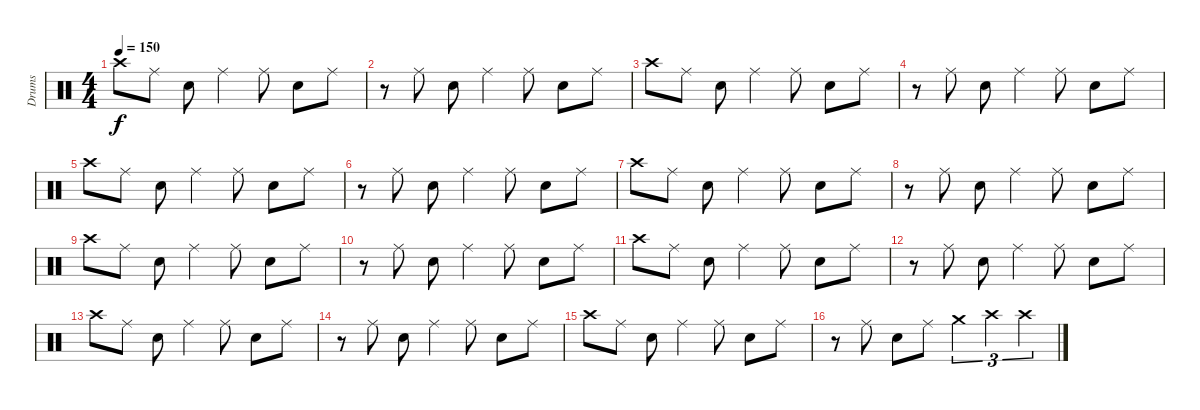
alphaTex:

\track ("Drums" "Drums") {instrument percussion}
\staff {score}
\articulation defaults
\ts (4 4)
\tempo 150
\clef neutral
\ks c "Crash high (hit)".8{dy f} "Ride (middle)".8 "Electric Snare (hit)".8 "Ride (middle)".4 "Ride (middle)".8 "Electric Snare (hit)".8 "Ride (middle)".8
|
r.8 "Ride (middle)".8 "Electric Snare (hit)".8 "Ride (middle)".4 "Ride (middle)".8 "Electric Snare (hit)".8 "Ride (middle)".8 |
"Crash high (hit)".8 "Ride (middle)".8 "Electric Snare (hit)".8 "Ride (middle)".4 "Ride (middle)".8 "Electric Snare (hit)".8 "Ride (middle)".8 |
r.8 "Ride (middle)".8 "Electric Snare (hit)".8 "Ride (middle)".4 "Ride (middle)".8 "Electric Snare (hit)".8 "Ride (middle)".8 |
"Crash high (hit)".8 "Ride (middle)".8 "Electric Snare (hit)".8 "Ride (middle)".4 "Ride (middle)".8 "Electric Snare (hit)".8 "Ride (middle)".8 |
r.8 "Ride (middle)".8 "Electric Snare (hit)".8 "Ride (middle)".4 "Ride (middle)".8 "Electric Snare (hit)".8 "Ride (middle)".8 |
"Crash high (hit)".8 "Ride (middle)".8 "Electric Snare (hit)".8 "Ride (middle)".4 "Ride (middle)".8 "Electric Snare (hit)".8 "Ride (middle)".8 |
r.8 "Ride (middle)".8 "Electric Snare (hit)".8 "Ride (middle)".4 "Ride (middle)".8 "Electric Snare (hit)".8 "Ride (middle)".8 |
"Crash high (hit)".8 "Ride (middle)".8 "Electric Snare (hit)".8 "Ride (middle)".4 "Ride (middle)".8 "Electric Snare (hit)".8 "Ride (middle)".8 |
r.8 "Ride (middle)".8 "Electric Snare (hit)".8 "Ride (middle)".4 "Ride (middle)".8 "Electric Snare (hit)".8 "Ride (middle)".8 |
"Crash high (hit)".8 "Ride (middle)".8 "Electric Snare (hit)".8 "Ride (middle)".4 "Ride (middle)".8 "Electric Snare (hit)".8 "Ride (middle)".8 |
r.8 "Ride (middle)".8 "Electric Snare (hit)".8 "Ride (middle)".4 "Ride (middle)".8 "Electric Snare (hit)".8 "Ride (middle)".8 |
"Crash high (hit)".8 "Ride (middle)".8 "Electric Snare (hit)".8 "Ride (middle)".4 "Ride (middle)".8 "Electric Snare (hit)".8 "Ride (middle)".8 |
r.8 "Ride (middle)".8 "Electric Snare (hit)".8 "Ride (middle)".4 "Ride (middle)".8 "Electric Snare (hit)".8 "Ride (middle)".8 |
"Crash high (hit)".8 "Ride (middle)".8 "Electric Snare (hit)".8 "Ride (middle)".4 "Ride (middle)".8 "Electric Snare (hit)".8 "Ride (middle)".8 |
r.8 "Ride (middle)".8 "Electric Snare (hit)".8 "Ride (middle)".8 "Crash medium (hit)".4{tu (3 2)} "Crash high (hit)".4{tu (3 2)} "Crash high (hit)".4{tu (3 2)}
